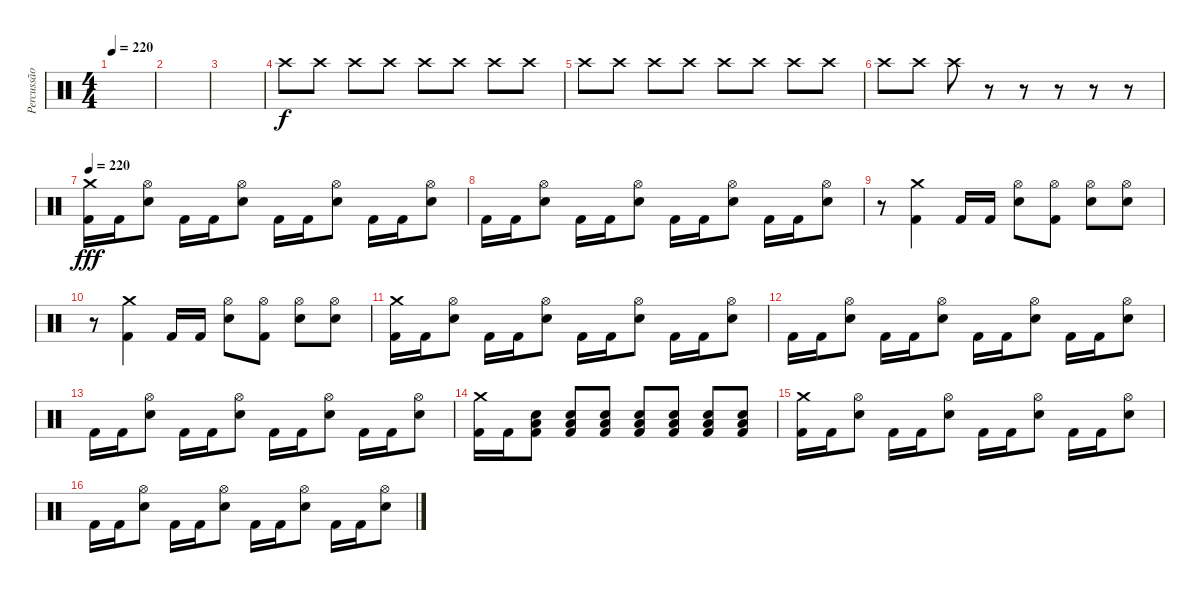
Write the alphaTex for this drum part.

\track ("Percussão" "Percussão") {instrument percussion}
\staff {score}
\articulation defaults
\ts (4 4)
\tempo 220
\tempo 200
\tempo 220
\clef neutral
\ks c
|
|
|
"Crash high (hit)".8{volume 9} "Crash high (hit)".8 "Crash high (hit)".8 "Crash high (hit)".8 "Crash high (hit)".8 "Crash high (hit)".8 "Crash high (hit)".8 "Crash high (hit)".8 |
"Crash high (hit)".8 "Crash high (hit)".8 "Crash high (hit)".8 "Crash high (hit)".8 "Crash high (hit)".8 "Crash high (hit)".8 "Crash high (hit)".8 "Crash high (hit)".8 |
"Crash high (hit)".8 "Crash high (hit)".8 "Crash high (hit)".8 r.8 r.8 r.8 r.8 r.8 |
\tempo 220
("Crash medium (hit)" "Kick (hit) 2").16{dy fff volume 16} "Kick (hit) 2".16 ("Hi-Hat (open)" "Electric Snare (hit)").8 "Kick (hit) 2".16 "Kick (hit) 2".16 ("Hi-Hat (open)" "Electric Snare (hit)").8 "Kick (hit) 2".16 "Kick (hit) 2".16 ("Hi-Hat (open)" "Electric Snare (hit)").8 "Kick (hit) 2".16 "Kick (hit) 2".16 ("Hi-Hat (open)" "Electric Snare (hit)").8 |
"Kick (hit) 2".16 "Kick (hit) 2".16 ("Hi-Hat (open)" "Electric Snare (hit)").8 "Kick (hit) 2".16 "Kick (hit) 2".16 ("Hi-Hat (open)" "Electric Snare (hit)").8 "Kick (hit) 2".16 "Kick (hit) 2".16 ("Hi-Hat (open)" "Electric Snare (hit)").8 "Kick (hit) 2".16 "Kick (hit) 2".16 ("Hi-Hat (open)" "Electric Snare (hit)").8 |
r.8 ("Crash medium (hit)" "Kick (hit) 2").4 "Kick (hit) 2".16 "Kick (hit) 2".16 ("Hi-Hat (open)" "Electric Snare (hit)").8 ("Hi-Hat (open)" "Kick (hit) 2").8 ("Hi-Hat (open)" "Electric Snare (hit)").8 ("Hi-Hat (open)" "Electric Snare (hit)").8 |
r.8 ("Crash medium (hit)" "Kick (hit) 2").4 "Kick (hit) 2".16 "Kick (hit) 2".16 ("Hi-Hat (open)" "Electric Snare (hit)").8 ("Hi-Hat (open)" "Kick (hit) 2").8 ("Hi-Hat (open)" "Electric Snare (hit)").8 ("Hi-Hat (open)" "Electric Snare (hit)").8 |
("Crash medium (hit)" "Kick (hit) 2").16 "Kick (hit) 2".16 ("Hi-Hat (open)" "Electric Snare (hit)").8 "Kick (hit) 2".16 "Kick (hit) 2".16 ("Hi-Hat (open)" "Electric Snare (hit)").8 "Kick (hit) 2".16 "Kick (hit) 2".16 ("Hi-Hat (open)" "Electric Snare (hit)").8 "Kick (hit) 2".16 "Kick (hit) 2".16 ("Hi-Hat (open)" "Electric Snare (hit)").8 |
"Kick (hit) 2".16 "Kick (hit) 2".16 ("Hi-Hat (open)" "Electric Snare (hit)").8 "Kick (hit) 2".16 "Kick (hit) 2".16 ("Hi-Hat (open)" "Electric Snare (hit)").8 "Kick (hit) 2".16 "Kick (hit) 2".16 ("Hi-Hat (open)" "Electric Snare (hit)").8 "Kick (hit) 2".16 "Kick (hit) 2".16 ("Hi-Hat (open)" "Electric Snare (hit)").8 |
"Kick (hit) 2".16 "Kick (hit) 2".16 ("Hi-Hat (open)" "Electric Snare (hit)").8 "Kick (hit) 2".16 "Kick (hit) 2".16 ("Hi-Hat (open)" "Electric Snare (hit)").8 "Kick (hit) 2".16 "Kick (hit) 2".16 ("Hi-Hat (open)" "Electric Snare (hit)").8 "Kick (hit) 2".16 "Kick (hit) 2".16 ("Hi-Hat (open)" "Electric Snare (hit)").8 |
("Crash medium (hit)" "Kick (hit) 2").16 "Kick (hit) 2".16 ("Kick (hit) 2" "Low Tom (hit)" "Electric Snare (hit)").8 ("Kick (hit) 2" "Low Tom (hit)" "Electric Snare (hit)").8 ("Kick (hit) 2" "Low Tom (hit)" "Electric Snare (hit)").8 ("Kick (hit) 2" "Low Tom (hit)" "Electric Snare (hit)").8 ("Kick (hit) 2" "Low Tom (hit)" "Electric Snare (hit)").8 ("Kick (hit) 2" "Low Tom (hit)" "Electric Snare (hit)").8 ("Kick (hit) 2" "Low Tom (hit)" "Electric Snare (hit)").8 |
("Crash medium (hit)" "Kick (hit) 2").16{volume 16} "Kick (hit) 2".16 ("Hi-Hat (open)" "Electric Snare (hit)").8 "Kick (hit) 2".16 "Kick (hit) 2".16 ("Hi-Hat (open)" "Electric Snare (hit)").8 "Kick (hit) 2".16 "Kick (hit) 2".16 ("Hi-Hat (open)" "Electric Snare (hit)").8 "Kick (hit) 2".16 "Kick (hit) 2".16 ("Hi-Hat (open)" "Electric Snare (hit)").8 |
"Kick (hit) 2".16 "Kick (hit) 2".16 ("Hi-Hat (open)" "Electric Snare (hit)").8 "Kick (hit) 2".16 "Kick (hit) 2".16 ("Hi-Hat (open)" "Electric Snare (hit)").8 "Kick (hit) 2".16 "Kick (hit) 2".16 ("Hi-Hat (open)" "Electric Snare (hit)").8 "Kick (hit) 2".16 "Kick (hit) 2".16 ("Hi-Hat (open)" "Electric Snare (hit)").8
